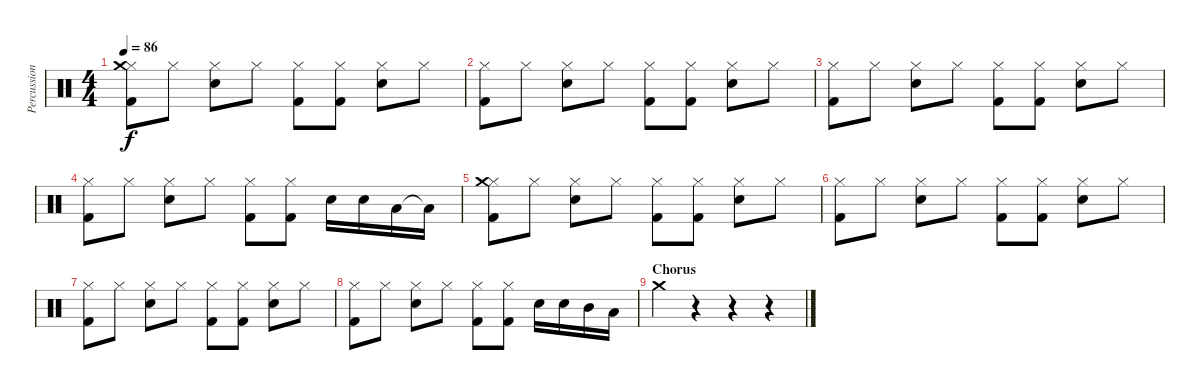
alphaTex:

\track ("Percussion" "Percussion") {instrument percussion}
\staff {score}
\articulation defaults
\ts (4 4)
\tempo 86
\clef neutral
\ks c
("Kick (hit) 2" "Hi-Hat (closed)" "Crash medium (hit)").8{dy f} "Hi-Hat (closed)".8 ("Electric Snare (hit)" "Hi-Hat (closed)").8 "Hi-Hat (closed)".8 ("Kick (hit) 2" "Hi-Hat (closed)").8 ("Kick (hit) 2" "Hi-Hat (closed)").8 ("Electric Snare (hit)" "Hi-Hat (closed)").8 "Hi-Hat (closed)".8 |
("Kick (hit) 2" "Hi-Hat (closed)").8 "Hi-Hat (closed)".8 ("Electric Snare (hit)" "Hi-Hat (closed)").8 "Hi-Hat (closed)".8 ("Kick (hit) 2" "Hi-Hat (closed)").8 ("Kick (hit) 2" "Hi-Hat (closed)").8 ("Electric Snare (hit)" "Hi-Hat (closed)").8 "Hi-Hat (closed)".8 |
("Kick (hit) 2" "Hi-Hat (closed)").8 "Hi-Hat (closed)".8 ("Electric Snare (hit)" "Hi-Hat (closed)").8 "Hi-Hat (closed)".8 ("Kick (hit) 2" "Hi-Hat (closed)").8 ("Kick (hit) 2" "Hi-Hat (closed)").8 ("Electric Snare (hit)" "Hi-Hat (closed)").8 "Hi-Hat (closed)".8 |
("Kick (hit) 2" "Hi-Hat (closed)").8 "Hi-Hat (closed)".8 ("Electric Snare (hit)" "Hi-Hat (closed)").8 "Hi-Hat (closed)".8 ("Kick (hit) 2" "Hi-Hat (closed)").8 ("Kick (hit) 2" "Hi-Hat (closed)").8 "Electric Snare (hit)".16 "Electric Snare (hit)".16 "Low Tom (hit)".16 "Low Tom (hit)"{t}.16 |
("Kick (hit) 2" "Hi-Hat (closed)" "Crash medium (hit)").8 "Hi-Hat (closed)".8 ("Electric Snare (hit)" "Hi-Hat (closed)").8 "Hi-Hat (closed)".8 ("Kick (hit) 2" "Hi-Hat (closed)").8 ("Kick (hit) 2" "Hi-Hat (closed)").8 ("Electric Snare (hit)" "Hi-Hat (closed)").8 "Hi-Hat (closed)".8 |
("Kick (hit) 2" "Hi-Hat (closed)").8 "Hi-Hat (closed)".8 ("Electric Snare (hit)" "Hi-Hat (closed)").8 "Hi-Hat (closed)".8 ("Kick (hit) 2" "Hi-Hat (closed)").8 ("Kick (hit) 2" "Hi-Hat (closed)").8 ("Electric Snare (hit)" "Hi-Hat (closed)").8 "Hi-Hat (closed)".8 |
("Kick (hit) 2" "Hi-Hat (closed)").8 "Hi-Hat (closed)".8 ("Electric Snare (hit)" "Hi-Hat (closed)").8 "Hi-Hat (closed)".8 ("Kick (hit) 2" "Hi-Hat (closed)").8 ("Kick (hit) 2" "Hi-Hat (closed)").8 ("Electric Snare (hit)" "Hi-Hat (closed)").8 "Hi-Hat (closed)".8 |
("Kick (hit) 2" "Hi-Hat (closed)").8 "Hi-Hat (closed)".8 ("Electric Snare (hit)" "Hi-Hat (closed)").8 "Hi-Hat (closed)".8 ("Kick (hit) 2" "Hi-Hat (closed)").8 ("Kick (hit) 2" "Hi-Hat (closed)").8 "Electric Snare (hit)".16 "Electric Snare (hit)".16 "Mid Tom (hit)".16 "Low Tom (hit)".16 |
\section ("" "Chorus")
"Crash medium (hit)".4 r.4 r.4 r.4
